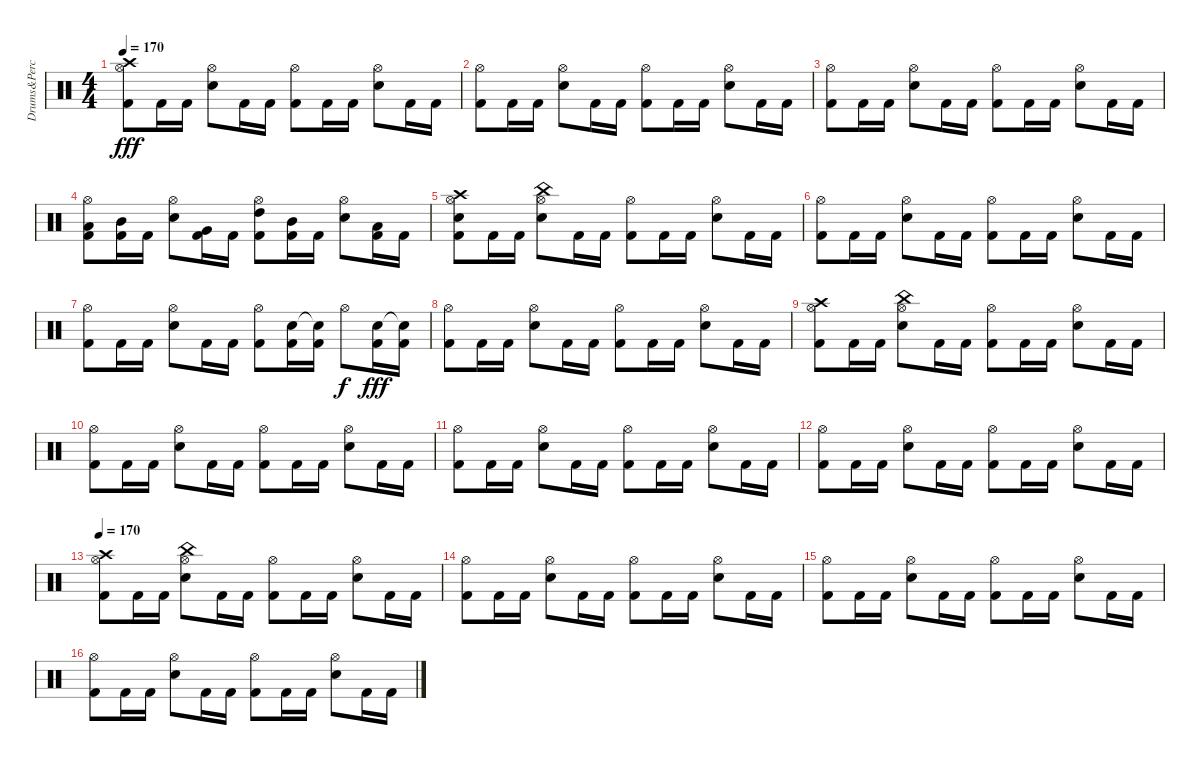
\track ("Drums&Percusion" "Drums&Perc") {instrument percussion}
\staff {score}
\articulation defaults
\ts (4 4)
\tempo 170
\clef neutral
\ks c
("Hi-Hat (open)" "Crash high (hit)" "Kick (hit) 2").8{dy fff} "Kick (hit) 2".16 "Kick (hit) 2".16 ("Hi-Hat (open)" "Snare (hit) 2").8 "Kick (hit) 2".16 "Kick (hit) 2".16 ("Hi-Hat (open)" "Kick (hit) 2").8 "Kick (hit) 2".16 "Kick (hit) 2".16 ("Hi-Hat (open)" "Snare (hit) 2").8 "Kick (hit) 2".16 "Kick (hit) 2".16 |
("Hi-Hat (open)" "Kick (hit) 2").8 "Kick (hit) 2".16 "Kick (hit) 2".16 ("Hi-Hat (open)" "Snare (hit) 2").8 "Kick (hit) 2".16 "Kick (hit) 2".16 ("Hi-Hat (open)" "Kick (hit) 2").8 "Kick (hit) 2".16 "Kick (hit) 2".16 ("Hi-Hat (open)" "Snare (hit) 2").8 "Kick (hit) 2".16 "Kick (hit) 2".16 |
("Hi-Hat (open)" "Kick (hit) 2").8 "Kick (hit) 2".16 "Kick (hit) 2".16 ("Hi-Hat (open)" "Snare (hit) 2").8 "Kick (hit) 2".16 "Kick (hit) 2".16 ("Hi-Hat (open)" "Kick (hit) 2").8 "Kick (hit) 2".16 "Kick (hit) 2".16 ("Hi-Hat (open)" "Snare (hit) 2").8 "Kick (hit) 2".16 "Kick (hit) 2".16 |
("Hi-Hat (open)" "Low Tom (hit)" "Kick (hit) 2").8 ("Mid Tom (hit)" "Kick (hit) 2").16 "Kick (hit) 2".16 ("Hi-Hat (open)" "Snare (hit) 2").8 ("Very Low Tom (hit)" "Kick (hit) 2").16 "Kick (hit) 2".16 ("Hi-Hat (open)" "High Tom (hit)" "Kick (hit) 2").8 ("Mid Tom (hit)" "Kick (hit) 2").16 "Kick (hit) 2".16 ("Hi-Hat (open)" "Snare (hit) 2").8 ("Low Tom (hit)" "Kick (hit) 2").16 "Kick (hit) 2".16 |
("Hi-Hat (open)" "Crash high (hit)" "Snare (hit) 2" "Kick (hit) 2").8 "Kick (hit) 2".16 "Kick (hit) 2".16 ("Hi-Hat (open)" "China (hit)" "Snare (hit) 2").8 "Kick (hit) 2".16 "Kick (hit) 2".16 ("Hi-Hat (open)" "Kick (hit) 2").8 "Kick (hit) 2".16 "Kick (hit) 2".16 ("Hi-Hat (open)" "Snare (hit) 2").8 "Kick (hit) 2".16 "Kick (hit) 2".16 |
("Hi-Hat (open)" "Kick (hit) 2").8 "Kick (hit) 2".16 "Kick (hit) 2".16 ("Hi-Hat (open)" "Snare (hit) 2").8 "Kick (hit) 2".16 "Kick (hit) 2".16 ("Hi-Hat (open)" "Kick (hit) 2").8 "Kick (hit) 2".16 "Kick (hit) 2".16 ("Hi-Hat (open)" "Snare (hit) 2").8 "Kick (hit) 2".16 "Kick (hit) 2".16 |
("Hi-Hat (open)" "Kick (hit) 2").8 "Kick (hit) 2".16 "Kick (hit) 2".16 ("Hi-Hat (open)" "Snare (hit) 2").8 "Kick (hit) 2".16 "Kick (hit) 2".16 ("Hi-Hat (open)" "Kick (hit) 2").8 ("Snare (hit) 2" "Kick (hit) 2").16 ("Snare (hit)"{t} "Kick (hit) 2").16 "Hi-Hat (open)".8{dy f} ("Snare (hit) 2" "Kick (hit) 2").16{dy fff} ("Snare (hit)"{t} "Kick (hit) 2").16 |
("Hi-Hat (open)" "Kick (hit) 2").8 "Kick (hit) 2".16 "Kick (hit) 2".16 ("Hi-Hat (open)" "Snare (hit) 2").8 "Kick (hit) 2".16 "Kick (hit) 2".16 ("Hi-Hat (open)" "Kick (hit) 2").8 "Kick (hit) 2".16 "Kick (hit) 2".16 ("Hi-Hat (open)" "Snare (hit) 2").8 "Kick (hit) 2".16 "Kick (hit) 2".16 |
("Hi-Hat (open)" "Crash high (hit)" "Kick (hit) 2").8 "Kick (hit) 2".16 "Kick (hit) 2".16 ("Hi-Hat (open)" "China (hit)" "Snare (hit) 2").8 "Kick (hit) 2".16 "Kick (hit) 2".16 ("Hi-Hat (open)" "Kick (hit) 2").8 "Kick (hit) 2".16 "Kick (hit) 2".16 ("Hi-Hat (open)" "Snare (hit) 2").8 "Kick (hit) 2".16 "Kick (hit) 2".16 |
("Hi-Hat (open)" "Kick (hit) 2").8 "Kick (hit) 2".16 "Kick (hit) 2".16 ("Hi-Hat (open)" "Snare (hit) 2").8 "Kick (hit) 2".16 "Kick (hit) 2".16 ("Hi-Hat (open)" "Kick (hit) 2").8 "Kick (hit) 2".16 "Kick (hit) 2".16 ("Hi-Hat (open)" "Snare (hit) 2").8 "Kick (hit) 2".16 "Kick (hit) 2".16 |
("Hi-Hat (open)" "Kick (hit) 2").8 "Kick (hit) 2".16 "Kick (hit) 2".16 ("Hi-Hat (open)" "Snare (hit) 2").8 "Kick (hit) 2".16 "Kick (hit) 2".16 ("Hi-Hat (open)" "Kick (hit) 2").8 "Kick (hit) 2".16 "Kick (hit) 2".16 ("Hi-Hat (open)" "Snare (hit) 2").8 "Kick (hit) 2".16 "Kick (hit) 2".16 |
("Hi-Hat (open)" "Kick (hit) 2").8 "Kick (hit) 2".16 "Kick (hit) 2".16 ("Hi-Hat (open)" "Snare (hit) 2").8 "Kick (hit) 2".16 "Kick (hit) 2".16 ("Hi-Hat (open)" "Kick (hit) 2").8 "Kick (hit) 2".16 "Kick (hit) 2".16 ("Hi-Hat (open)" "Snare (hit) 2").8 "Kick (hit) 2".16 "Kick (hit) 2".16 |
\tempo 170
("Hi-Hat (open)" "Crash high (hit)" "Kick (hit) 2").8 "Kick (hit) 2".16 "Kick (hit) 2".16 ("Hi-Hat (open)" "China (hit)" "Snare (hit) 2").8 "Kick (hit) 2".16 "Kick (hit) 2".16 ("Hi-Hat (open)" "Kick (hit) 2").8 "Kick (hit) 2".16 "Kick (hit) 2".16 ("Hi-Hat (open)" "Snare (hit) 2").8 "Kick (hit) 2".16 "Kick (hit) 2".16 |
("Hi-Hat (open)" "Kick (hit) 2").8 "Kick (hit) 2".16 "Kick (hit) 2".16 ("Hi-Hat (open)" "Snare (hit) 2").8 "Kick (hit) 2".16 "Kick (hit) 2".16 ("Hi-Hat (open)" "Kick (hit) 2").8 "Kick (hit) 2".16 "Kick (hit) 2".16 ("Hi-Hat (open)" "Snare (hit) 2").8 "Kick (hit) 2".16 "Kick (hit) 2".16 |
("Hi-Hat (open)" "Kick (hit) 2").8 "Kick (hit) 2".16 "Kick (hit) 2".16 ("Hi-Hat (open)" "Snare (hit) 2").8 "Kick (hit) 2".16 "Kick (hit) 2".16 ("Hi-Hat (open)" "Kick (hit) 2").8 "Kick (hit) 2".16 "Kick (hit) 2".16 ("Hi-Hat (open)" "Snare (hit) 2").8 "Kick (hit) 2".16 "Kick (hit) 2".16 |
("Hi-Hat (open)" "Kick (hit) 2").8 "Kick (hit) 2".16 "Kick (hit) 2".16 ("Hi-Hat (open)" "Snare (hit) 2").8 "Kick (hit) 2".16 "Kick (hit) 2".16 ("Hi-Hat (open)" "Kick (hit) 2").8 "Kick (hit) 2".16 "Kick (hit) 2".16 ("Hi-Hat (open)" "Snare (hit) 2").8 "Kick (hit) 2".16 "Kick (hit) 2".16
